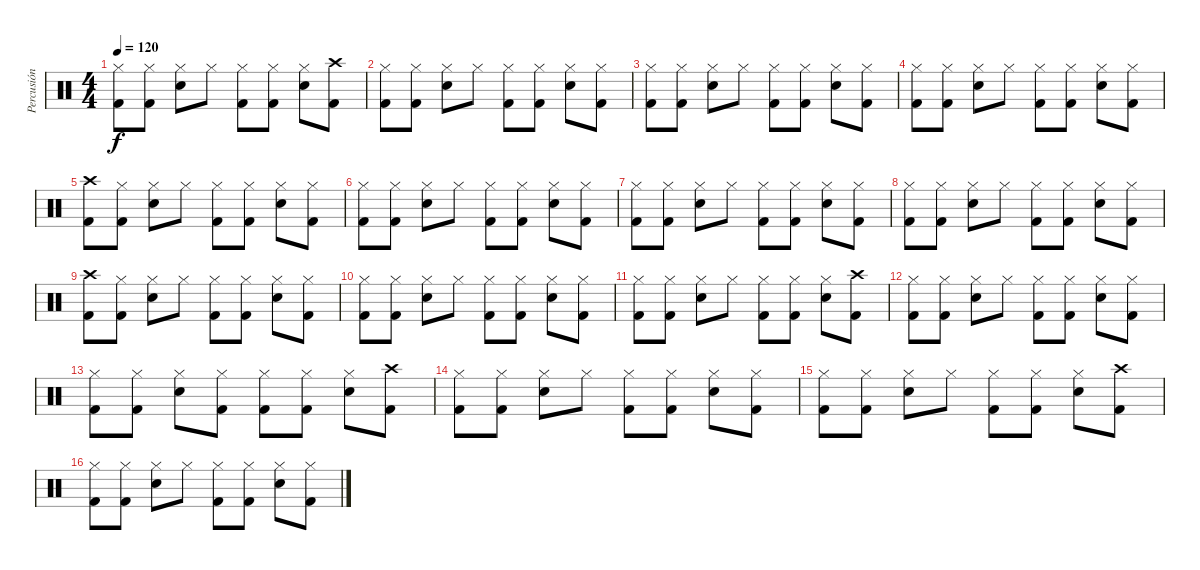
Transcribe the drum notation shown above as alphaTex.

\track ("Percusión" "Percusión") {instrument percussion}
\staff {score}
\articulation defaults
\ts (4 4)
\tempo 120
\clef neutral
\ks c
("Hi-Hat (closed)" "Kick (hit) 2").8{dy f} ("Hi-Hat (closed)" "Kick (hit) 2").8 ("Hi-Hat (closed)" "Snare (hit) 2").8 "Hi-Hat (closed)".8 ("Hi-Hat (closed)" "Kick (hit) 2").8 ("Hi-Hat (closed)" "Kick (hit) 2").8 ("Hi-Hat (closed)" "Snare (hit) 2").8 ("Crash high (hit)" "Kick (hit) 2").8 |
("Hi-Hat (closed)" "Kick (hit) 2").8 ("Hi-Hat (closed)" "Kick (hit) 2").8 ("Hi-Hat (closed)" "Snare (hit) 2").8 "Hi-Hat (closed)".8 ("Hi-Hat (closed)" "Kick (hit) 2").8 ("Hi-Hat (closed)" "Kick (hit) 2").8 ("Hi-Hat (closed)" "Snare (hit) 2").8 ("Hi-Hat (closed)" "Kick (hit) 2").8 |
("Hi-Hat (closed)" "Kick (hit) 2").8 ("Hi-Hat (closed)" "Kick (hit) 2").8 ("Hi-Hat (closed)" "Snare (hit) 2").8 "Hi-Hat (closed)".8 ("Hi-Hat (closed)" "Kick (hit) 2").8 ("Hi-Hat (closed)" "Kick (hit) 2").8 ("Hi-Hat (closed)" "Snare (hit) 2").8 ("Hi-Hat (closed)" "Kick (hit) 2").8 |
("Hi-Hat (closed)" "Kick (hit) 2").8 ("Hi-Hat (closed)" "Kick (hit) 2").8 ("Hi-Hat (closed)" "Snare (hit) 2").8 "Hi-Hat (closed)".8 ("Hi-Hat (closed)" "Kick (hit) 2").8 ("Hi-Hat (closed)" "Kick (hit) 2").8 ("Hi-Hat (closed)" "Snare (hit) 2").8 ("Hi-Hat (closed)" "Kick (hit) 2").8 |
("Crash high (hit)" "Kick (hit) 2").8 ("Hi-Hat (closed)" "Kick (hit) 2").8 ("Hi-Hat (closed)" "Snare (hit) 2").8 "Hi-Hat (closed)".8 ("Hi-Hat (closed)" "Kick (hit) 2").8 ("Hi-Hat (closed)" "Kick (hit) 2").8 ("Hi-Hat (closed)" "Snare (hit) 2").8 ("Hi-Hat (closed)" "Kick (hit) 2").8 |
("Hi-Hat (closed)" "Kick (hit) 2").8 ("Hi-Hat (closed)" "Kick (hit) 2").8 ("Hi-Hat (closed)" "Snare (hit) 2").8 "Hi-Hat (closed)".8 ("Hi-Hat (closed)" "Kick (hit) 2").8 ("Hi-Hat (closed)" "Kick (hit) 2").8 ("Hi-Hat (closed)" "Snare (hit) 2").8 ("Hi-Hat (closed)" "Kick (hit) 2").8 |
("Hi-Hat (closed)" "Kick (hit) 2").8 ("Hi-Hat (closed)" "Kick (hit) 2").8 ("Hi-Hat (closed)" "Snare (hit) 2").8 "Hi-Hat (closed)".8 ("Hi-Hat (closed)" "Kick (hit) 2").8 ("Hi-Hat (closed)" "Kick (hit) 2").8 ("Hi-Hat (closed)" "Snare (hit) 2").8 ("Hi-Hat (closed)" "Kick (hit) 2").8 |
("Hi-Hat (closed)" "Kick (hit) 2").8 ("Hi-Hat (closed)" "Kick (hit) 2").8 ("Hi-Hat (closed)" "Snare (hit) 2").8 "Hi-Hat (closed)".8 ("Hi-Hat (closed)" "Kick (hit) 2").8 ("Hi-Hat (closed)" "Kick (hit) 2").8 ("Hi-Hat (closed)" "Snare (hit) 2").8 ("Hi-Hat (closed)" "Kick (hit) 2").8 |
("Crash high (hit)" "Kick (hit) 2").8 ("Hi-Hat (closed)" "Kick (hit) 2").8 ("Hi-Hat (closed)" "Snare (hit) 2").8 "Hi-Hat (closed)".8 ("Hi-Hat (closed)" "Kick (hit) 2").8 ("Hi-Hat (closed)" "Kick (hit) 2").8 ("Hi-Hat (closed)" "Snare (hit) 2").8 ("Hi-Hat (closed)" "Kick (hit) 2").8 |
("Hi-Hat (closed)" "Kick (hit) 2").8 ("Hi-Hat (closed)" "Kick (hit) 2").8 ("Hi-Hat (closed)" "Snare (hit) 2").8 "Hi-Hat (closed)".8 ("Hi-Hat (closed)" "Kick (hit) 2").8 ("Hi-Hat (closed)" "Kick (hit) 2").8 ("Hi-Hat (closed)" "Snare (hit) 2").8 ("Hi-Hat (closed)" "Kick (hit) 2").8 |
("Hi-Hat (closed)" "Kick (hit) 2").8 ("Hi-Hat (closed)" "Kick (hit) 2").8 ("Hi-Hat (closed)" "Snare (hit) 2").8 "Hi-Hat (closed)".8 ("Hi-Hat (closed)" "Kick (hit) 2").8 ("Hi-Hat (closed)" "Kick (hit) 2").8 ("Hi-Hat (closed)" "Snare (hit) 2").8 ("Crash high (hit)" "Kick (hit) 2").8 |
("Hi-Hat (closed)" "Kick (hit) 2").8 ("Hi-Hat (closed)" "Kick (hit) 2").8 ("Hi-Hat (closed)" "Snare (hit) 2").8 "Hi-Hat (closed)".8 ("Hi-Hat (closed)" "Kick (hit) 2").8 ("Hi-Hat (closed)" "Kick (hit) 2").8 ("Hi-Hat (closed)" "Snare (hit) 2").8 ("Hi-Hat (closed)" "Kick (hit) 2").8 |
("Hi-Hat (closed)" "Kick (hit) 2").8 ("Hi-Hat (closed)" "Kick (hit) 2").8 ("Hi-Hat (closed)" "Snare (hit) 2").8 ("Hi-Hat (closed)" "Kick (hit) 2").8 ("Hi-Hat (closed)" "Kick (hit) 2").8 ("Hi-Hat (closed)" "Kick (hit) 2").8 ("Hi-Hat (closed)" "Snare (hit) 2").8 ("Crash high (hit)" "Kick (hit) 2").8 |
("Hi-Hat (closed)" "Kick (hit) 2").8 ("Hi-Hat (closed)" "Kick (hit) 2").8 ("Hi-Hat (closed)" "Snare (hit) 2").8 "Hi-Hat (closed)".8 ("Hi-Hat (closed)" "Kick (hit) 2").8 ("Hi-Hat (closed)" "Kick (hit) 2").8 ("Hi-Hat (closed)" "Snare (hit) 2").8 ("Hi-Hat (closed)" "Kick (hit) 2").8 |
("Hi-Hat (closed)" "Kick (hit) 2").8 ("Hi-Hat (closed)" "Kick (hit) 2").8 ("Hi-Hat (closed)" "Snare (hit) 2").8 "Hi-Hat (closed)".8 ("Hi-Hat (closed)" "Kick (hit) 2").8 ("Hi-Hat (closed)" "Kick (hit) 2").8 ("Hi-Hat (closed)" "Snare (hit) 2").8 ("Crash high (hit)" "Kick (hit) 2").8 |
("Hi-Hat (closed)" "Kick (hit) 2").8 ("Hi-Hat (closed)" "Kick (hit) 2").8 ("Hi-Hat (closed)" "Snare (hit) 2").8 "Hi-Hat (closed)".8 ("Hi-Hat (closed)" "Kick (hit) 2").8 ("Hi-Hat (closed)" "Kick (hit) 2").8 ("Hi-Hat (closed)" "Snare (hit) 2").8 ("Hi-Hat (closed)" "Kick (hit) 2").8
